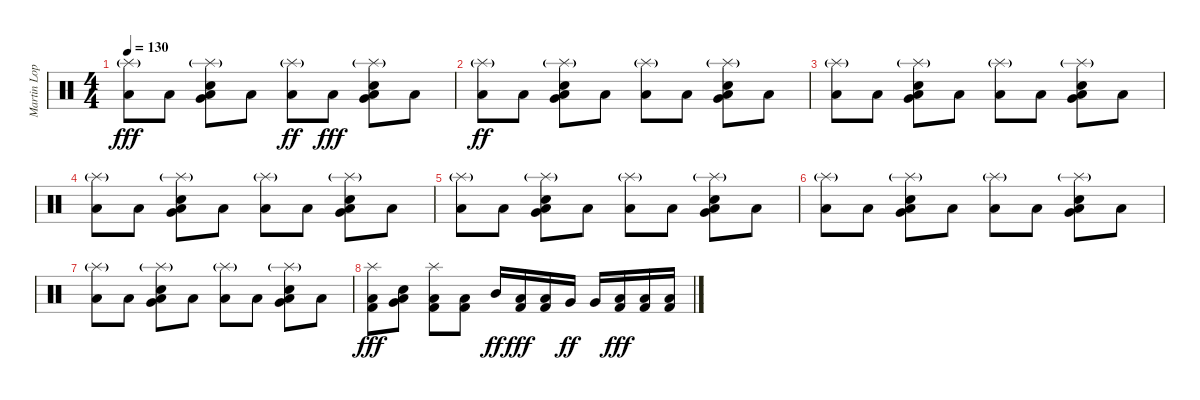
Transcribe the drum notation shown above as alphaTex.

\track ("Martin Lopez" "Martin Lop") {instrument percussion}
\staff {score}
\articulation defaults
\ts (4 4)
\tempo 130
\clef neutral
\ks c
("Splash (hit)"{g} "Low Floor Tom (hit)").8{dy fff volume 3} "Low Floor Tom (hit)".8 ("Splash (hit)"{g} "Very Low Tom (hit)" "Snare (hit) 2" "Low Floor Tom (hit)").8 "Low Floor Tom (hit)".8 ("Splash (hit)"{g} "Low Floor Tom (hit)").8{dy ff} "Low Floor Tom (hit)".8{dy fff} ("Splash (hit)"{g} "Very Low Tom (hit)" "Snare (hit) 2" "Low Floor Tom (hit)").8 "Low Floor Tom (hit)".8 |
("Splash (hit)"{g} "Low Floor Tom (hit)").8{dy ff} "Low Floor Tom (hit)".8 ("Splash (hit)"{g} "Very Low Tom (hit)" "Snare (hit) 2" "Low Floor Tom (hit)").8 "Low Floor Tom (hit)".8 ("Splash (hit)"{g} "Low Floor Tom (hit)").8 "Low Floor Tom (hit)".8 ("Splash (hit)"{g} "Very Low Tom (hit)" "Snare (hit) 2" "Low Floor Tom (hit)").8 "Low Floor Tom (hit)".8 |
("Splash (hit)"{g} "Low Floor Tom (hit)").8 "Low Floor Tom (hit)".8 ("Splash (hit)"{g} "Very Low Tom (hit)" "Snare (hit) 2" "Low Floor Tom (hit)").8 "Low Floor Tom (hit)".8 ("Splash (hit)"{g} "Low Floor Tom (hit)").8 "Low Floor Tom (hit)".8 ("Splash (hit)"{g} "Very Low Tom (hit)" "Snare (hit) 2" "Low Floor Tom (hit)").8 "Low Floor Tom (hit)".8 |
("Splash (hit)"{g} "Low Floor Tom (hit)").8 "Low Floor Tom (hit)".8 ("Splash (hit)"{g} "Very Low Tom (hit)" "Snare (hit) 2" "Low Floor Tom (hit)").8 "Low Floor Tom (hit)".8 ("Splash (hit)"{g} "Low Floor Tom (hit)").8 "Low Floor Tom (hit)".8 ("Splash (hit)"{g} "Very Low Tom (hit)" "Snare (hit) 2" "Low Floor Tom (hit)").8 "Low Floor Tom (hit)".8 |
("Splash (hit)"{g} "Low Floor Tom (hit)").8{volume 1} "Low Floor Tom (hit)".8 ("Splash (hit)"{g} "Very Low Tom (hit)" "Snare (hit) 2" "Low Floor Tom (hit)").8 "Low Floor Tom (hit)".8 ("Splash (hit)"{g} "Low Floor Tom (hit)").8 "Low Floor Tom (hit)".8 ("Splash (hit)"{g} "Very Low Tom (hit)" "Snare (hit) 2" "Low Floor Tom (hit)").8 "Low Floor Tom (hit)".8 |
("Splash (hit)"{g} "Low Floor Tom (hit)").8 "Low Floor Tom (hit)".8 ("Splash (hit)"{g} "Very Low Tom (hit)" "Snare (hit) 2" "Low Floor Tom (hit)").8 "Low Floor Tom (hit)".8 ("Splash (hit)"{g} "Low Floor Tom (hit)").8 "Low Floor Tom (hit)".8 ("Splash (hit)"{g} "Very Low Tom (hit)" "Snare (hit) 2" "Low Floor Tom (hit)").8 "Low Floor Tom (hit)".8 |
("Splash (hit)"{g} "Low Floor Tom (hit)").8{volume 0} "Low Floor Tom (hit)".8 ("Splash (hit)"{g} "Very Low Tom (hit)" "Snare (hit) 2" "Low Floor Tom (hit)").8 "Low Floor Tom (hit)".8 ("Splash (hit)"{g} "Low Floor Tom (hit)").8 "Low Floor Tom (hit)".8 ("Splash (hit)"{g} "Very Low Tom (hit)" "Snare (hit) 2" "Low Floor Tom (hit)").8 "Low Floor Tom (hit)".8 |
("Splash (hit)" "Kick (hit) 2" "Low Floor Tom (hit)").8{dy fff} ("Very Low Tom (hit)" "Snare (hit) 2" "Low Floor Tom (hit)").8 ("Splash (hit)" "Kick (hit) 2" "Low Floor Tom (hit)").8 ("Kick (hit) 2" "Low Floor Tom (hit)").8 "Mid Tom (hit)".16{dy ff} ("Kick (hit) 2" "Low Floor Tom (hit)").16{dy fff} ("Kick (hit) 2" "Low Floor Tom (hit)").16 "Very Low Tom (hit)".16{dy ff} "Very Low Tom (hit)".16 ("Kick (hit) 2" "Low Floor Tom (hit)").16{dy fff} ("Kick (hit) 2" "Low Floor Tom (hit)").16 ("Kick (hit) 2" "Low Floor Tom (hit)").16
